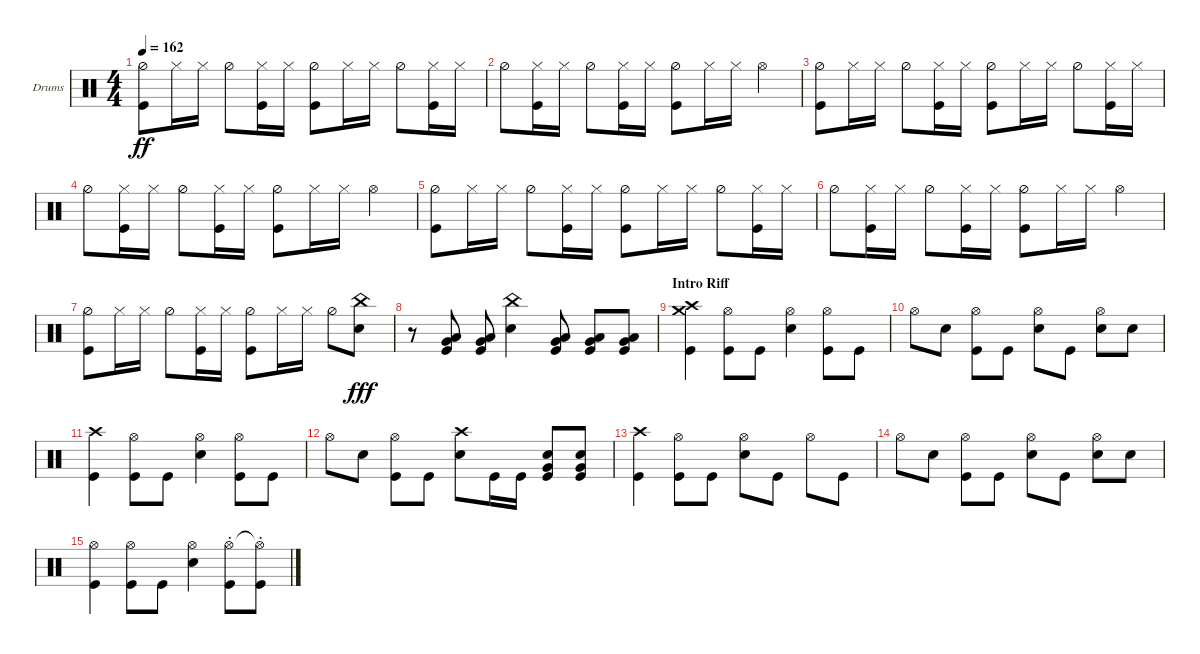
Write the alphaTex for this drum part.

\bracketExtendMode groupsimilarinstruments
\firstSystemTrackNameOrientation horizontal
\otherSystemsTrackNameOrientation horizontal
\track ("Drumkit" "Drums") {instrument percussion}
\staff {score}
\articulation defaults
\ts (4 4)
\tempo 162
\clef neutral
\ks c
("Hi-Hat (half)" "Kick (hit)").8{dy ff} "Hi-Hat (closed)".16 "Hi-Hat (closed)".16 "Hi-Hat (half)".8 ("Kick (hit)" "Hi-Hat (closed)").16 "Hi-Hat (closed)".16 ("Hi-Hat (half)" "Kick (hit)").8 "Hi-Hat (closed)".16 "Hi-Hat (closed)".16 "Hi-Hat (half)".8 ("Kick (hit)" "Hi-Hat (closed)").16 "Hi-Hat (closed)".16 |
"Hi-Hat (half)".8 ("Hi-Hat (closed)" "Kick (hit)").16 "Hi-Hat (closed)".16 "Hi-Hat (half)".8 ("Kick (hit)" "Hi-Hat (closed)").16 "Hi-Hat (closed)".16 ("Hi-Hat (half)" "Kick (hit)").8 "Hi-Hat (closed)".16 "Hi-Hat (closed)".16 "Hi-Hat (open)".4 |
("Hi-Hat (half)" "Kick (hit)").8 "Hi-Hat (closed)".16 "Hi-Hat (closed)".16 "Hi-Hat (half)".8 ("Kick (hit)" "Hi-Hat (closed)").16 "Hi-Hat (closed)".16 ("Hi-Hat (half)" "Kick (hit)").8 "Hi-Hat (closed)".16 "Hi-Hat (closed)".16 "Hi-Hat (half)".8 ("Kick (hit)" "Hi-Hat (closed)").16 "Hi-Hat (closed)".16 |
"Hi-Hat (half)".8 ("Hi-Hat (closed)" "Kick (hit)").16 "Hi-Hat (closed)".16 "Hi-Hat (half)".8 ("Kick (hit)" "Hi-Hat (closed)").16 "Hi-Hat (closed)".16 ("Hi-Hat (half)" "Kick (hit)").8 "Hi-Hat (closed)".16 "Hi-Hat (closed)".16 "Hi-Hat (open)".4 |
("Hi-Hat (half)" "Kick (hit)").8 "Hi-Hat (closed)".16 "Hi-Hat (closed)".16 "Hi-Hat (half)".8 ("Kick (hit)" "Hi-Hat (closed)").16 "Hi-Hat (closed)".16 ("Hi-Hat (half)" "Kick (hit)").8 "Hi-Hat (closed)".16 "Hi-Hat (closed)".16 "Hi-Hat (half)".8 ("Kick (hit)" "Hi-Hat (closed)").16 "Hi-Hat (closed)".16 |
"Hi-Hat (half)".8 ("Hi-Hat (closed)" "Kick (hit)").16 "Hi-Hat (closed)".16 "Hi-Hat (half)".8 ("Kick (hit)" "Hi-Hat (closed)").16 "Hi-Hat (closed)".16 ("Hi-Hat (half)" "Kick (hit)").8 "Hi-Hat (closed)".16 "Hi-Hat (closed)".16 "Hi-Hat (open)".4 |
("Hi-Hat (half)" "Kick (hit)").8 "Hi-Hat (closed)".16 "Hi-Hat (closed)".16 "Hi-Hat (half)".8 ("Kick (hit)" "Hi-Hat (closed)").16 "Hi-Hat (closed)".16 ("Hi-Hat (half)" "Kick (hit)").8 "Hi-Hat (closed)".16 "Hi-Hat (closed)".16 "Hi-Hat (half)".8 ("Snare (hit) 2" "China (hit)").8{dy fff} |
r.8 ("Kick (hit)" "Very Low Tom (hit)" "Low Tom (hit)").8 ("Kick (hit)" "Low Tom (hit)" "Very Low Tom (hit)").8 ("Snare (hit) 2" "China (hit)").4 ("Kick (hit)" "Very Low Tom (hit)" "Low Tom (hit)").8 ("Kick (hit)" "Low Tom (hit)" "Very Low Tom (hit)").8 ("Kick (hit)" "Very Low Tom (hit)" "Low Tom (hit)").8 |
\section ("" "Intro Riff")
("Kick (hit)" "Crash medium (hit)" "Crash high (hit)").4 ("Kick (hit)" "Hi-Hat (open)").8 "Kick (hit)".8 ("Snare (hit) 2" "Hi-Hat (open)").4 ("Hi-Hat (open)" "Kick (hit)").8 "Kick (hit)".8 |
"Hi-Hat (open)".8 "Snare (hit) 2".8 ("Hi-Hat (open)" "Kick (hit)").8 "Kick (hit)".8 ("Hi-Hat (open)" "Snare (hit) 2").8 "Kick (hit)".8 ("Hi-Hat (open)" "Snare (hit) 2").8 "Snare (hit) 2".8 |
("Kick (hit)" "Crash high (hit)").4 ("Kick (hit)" "Hi-Hat (open)").8 "Kick (hit)".8 ("Snare (hit) 2" "Hi-Hat (open)").4 ("Hi-Hat (open)" "Kick (hit)").8 "Kick (hit)".8 |
"Hi-Hat (open)".8 "Snare (hit) 2".8 ("Hi-Hat (open)" "Kick (hit)").8 "Kick (hit)".8 ("Snare (hit) 2" "Crash high (hit)").8 "Kick (hit)".16 "Kick (hit)".16 ("Very Low Tom (hit)" "Snare (hit) 2" "Kick (hit)").8 ("Very Low Tom (hit)" "Snare (hit) 2" "Kick (hit)").8 |
("Kick (hit)" "Crash high (hit)").4 ("Kick (hit)" "Hi-Hat (open)").8 "Kick (hit)".8 ("Snare (hit) 2" "Hi-Hat (open)").8 "Kick (hit)".8 "Hi-Hat (open)".8 "Kick (hit)".8 |
"Hi-Hat (open)".8 "Snare (hit) 2".8 ("Hi-Hat (open)" "Kick (hit)").8 "Kick (hit)".8 ("Hi-Hat (open)" "Snare (hit) 2").8 "Kick (hit)".8 ("Hi-Hat (open)" "Snare (hit) 2").8 "Snare (hit) 2".8 |
("Kick (hit)" "Hi-Hat (open)").4 ("Kick (hit)" "Hi-Hat (open)").8 "Kick (hit)".8 ("Snare (hit) 2" "Hi-Hat (open)").4 ("Kick (hit)"{st} "Hi-Hat (open)"{st}).8 ("Kick (hit)"{st} "Hi-Hat (open)"{t}).8
